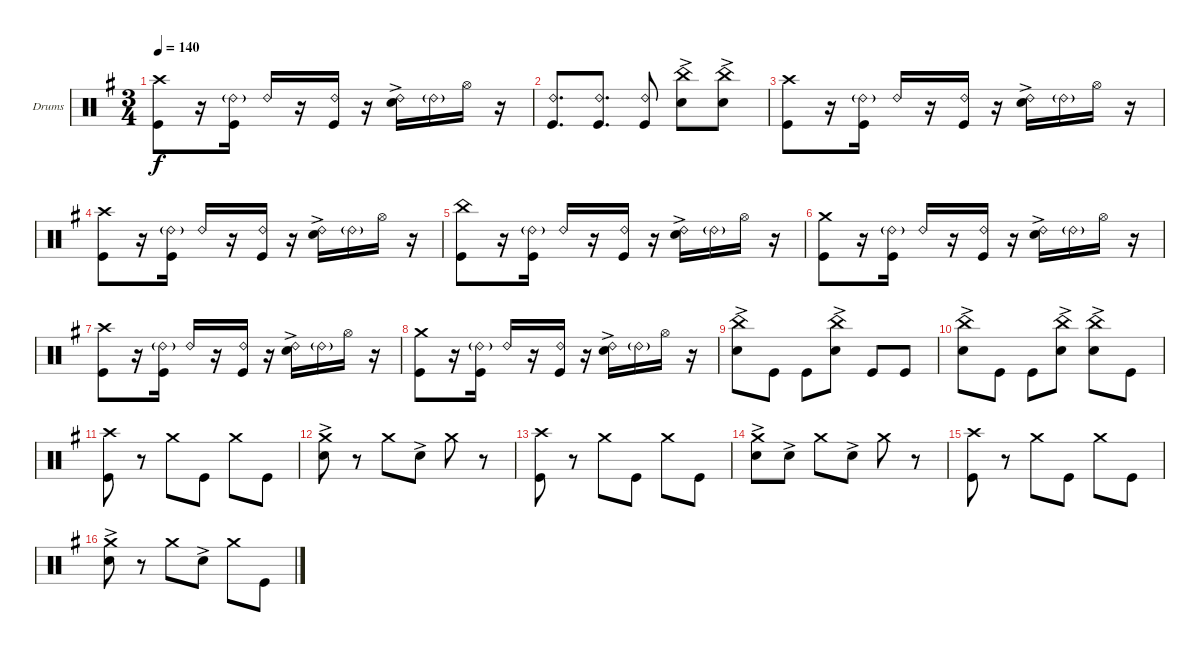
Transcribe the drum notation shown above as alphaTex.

\bracketExtendMode groupsimilarinstruments
\firstSystemTrackNameOrientation horizontal
\otherSystemsTrackNameOrientation horizontal
\track ("Drumkit" "Drums") {instrument percussion}
\staff {score}
\articulation defaults
\ts (3 4)
\tempo 140
\clef neutral
\ks eminor
("Kick (hit)" "Crash high (hit)").8{dy f} r.16 ("Ride (bell) 2"{g} "Kick (hit)").16 "Ride (bell) 2".16 r.16 ("Ride (bell) 2" "Kick (hit)").16 r.16 ("Ride (bell) 2" "Snare (hit) 2"{ac}).16 "Ride (bell) 2"{g}.16 "Hi-Hat (open)".16 r.16 |
("Kick (hit)" "Ride (bell) 2").8{d} ("Kick (hit)" "Ride (bell) 2").8{d} ("Kick (hit)" "Ride (bell) 2").8 ("Snare (hit) 2"{ac} "China (hit)").8 ("Snare (hit) 2"{ac} "China (hit)").8 |
("Kick (hit)" "Crash high (hit)").8 r.16 ("Ride (bell) 2"{g} "Kick (hit)").16 "Ride (bell) 2".16 r.16 ("Ride (bell) 2" "Kick (hit)").16 r.16 ("Ride (bell) 2" "Snare (hit) 2"{ac}).16 "Ride (bell) 2"{g}.16 "Hi-Hat (open)".16 r.16 |
("Kick (hit)" "Crash high (hit)").8 r.16 ("Ride (bell) 2"{g} "Kick (hit)").16 "Ride (bell) 2".16 r.16 ("Ride (bell) 2" "Kick (hit)").16 r.16 ("Ride (bell) 2" "Snare (hit) 2"{ac}).16 "Ride (bell) 2"{g}.16 "Hi-Hat (open)".16 r.16 |
("Kick (hit)" "China (hit)").8 r.16 ("Ride (bell) 2"{g} "Kick (hit)").16 "Ride (bell) 2".16 r.16 ("Ride (bell) 2" "Kick (hit)").16 r.16 ("Ride (bell) 2" "Snare (hit) 2"{ac}).16 "Ride (bell) 2"{g}.16 "Hi-Hat (open)".16 r.16 |
("Kick (hit)" "Crash medium (hit)").8 r.16 ("Ride (bell) 2"{g} "Kick (hit)").16 "Ride (bell) 2".16 r.16 ("Ride (bell) 2" "Kick (hit)").16 r.16 ("Ride (bell) 2" "Snare (hit) 2"{ac}).16 "Ride (bell) 2"{g}.16 "Hi-Hat (open)".16 r.16 |
("Kick (hit)" "Crash high (hit)").8 r.16 ("Ride (bell) 2"{g} "Kick (hit)").16 "Ride (bell) 2".16 r.16 ("Ride (bell) 2" "Kick (hit)").16 r.16 ("Ride (bell) 2" "Snare (hit) 2"{ac}).16 "Ride (bell) 2"{g}.16 "Hi-Hat (open)".16 r.16 |
("Kick (hit)" "Crash medium (hit)").8 r.16 ("Ride (bell) 2"{g} "Kick (hit)").16 "Ride (bell) 2".16 r.16 ("Ride (bell) 2" "Kick (hit)").16 r.16 ("Ride (bell) 2" "Snare (hit) 2"{ac}).16 "Ride (bell) 2"{g}.16 "Hi-Hat (open)".16 r.16 |
("Snare (hit) 2"{ac} "China (hit)").8 "Kick (hit)".8 "Kick (hit)".8 ("Snare (hit) 2"{ac} "China (hit)").8 "Kick (hit)".8 "Kick (hit)".8 |
("Snare (hit) 2"{ac} "China (hit)").8 "Kick (hit)".8 "Kick (hit)".8 ("Snare (hit) 2"{ac} "China (hit)").8 ("Snare (hit) 2"{ac} "China (hit)").8 "Kick (hit)".8 |
("Kick (hit)" "Crash high (hit)").8 r.8 "Crash medium (hit)".8 "Kick (hit)".8 "Crash medium (hit)".8 "Kick (hit)".8 |
("Crash medium (hit)" "Snare (hit) 2"{ac}).8 r.8 "Crash medium (hit)".8 "Snare (hit) 2"{ac}.8 "Crash medium (hit)".8 r.8 |
("Kick (hit)" "Crash high (hit)").8 r.8 "Crash medium (hit)".8 "Kick (hit)".8 "Crash medium (hit)".8 "Kick (hit)".8 |
("Crash medium (hit)" "Snare (hit) 2"{ac}).8 "Snare (hit) 2"{ac}.8 "Crash medium (hit)".8 "Snare (hit) 2"{ac}.8 "Crash medium (hit)".8 r.8 |
("Kick (hit)" "Crash high (hit)").8 r.8 "Crash medium (hit)".8 "Kick (hit)".8 "Crash medium (hit)".8 "Kick (hit)".8 |
("Crash medium (hit)" "Snare (hit) 2"{ac}).8 r.8 "Crash medium (hit)".8 "Snare (hit) 2"{ac}.8 "Crash medium (hit)".8 "Kick (hit)".8
